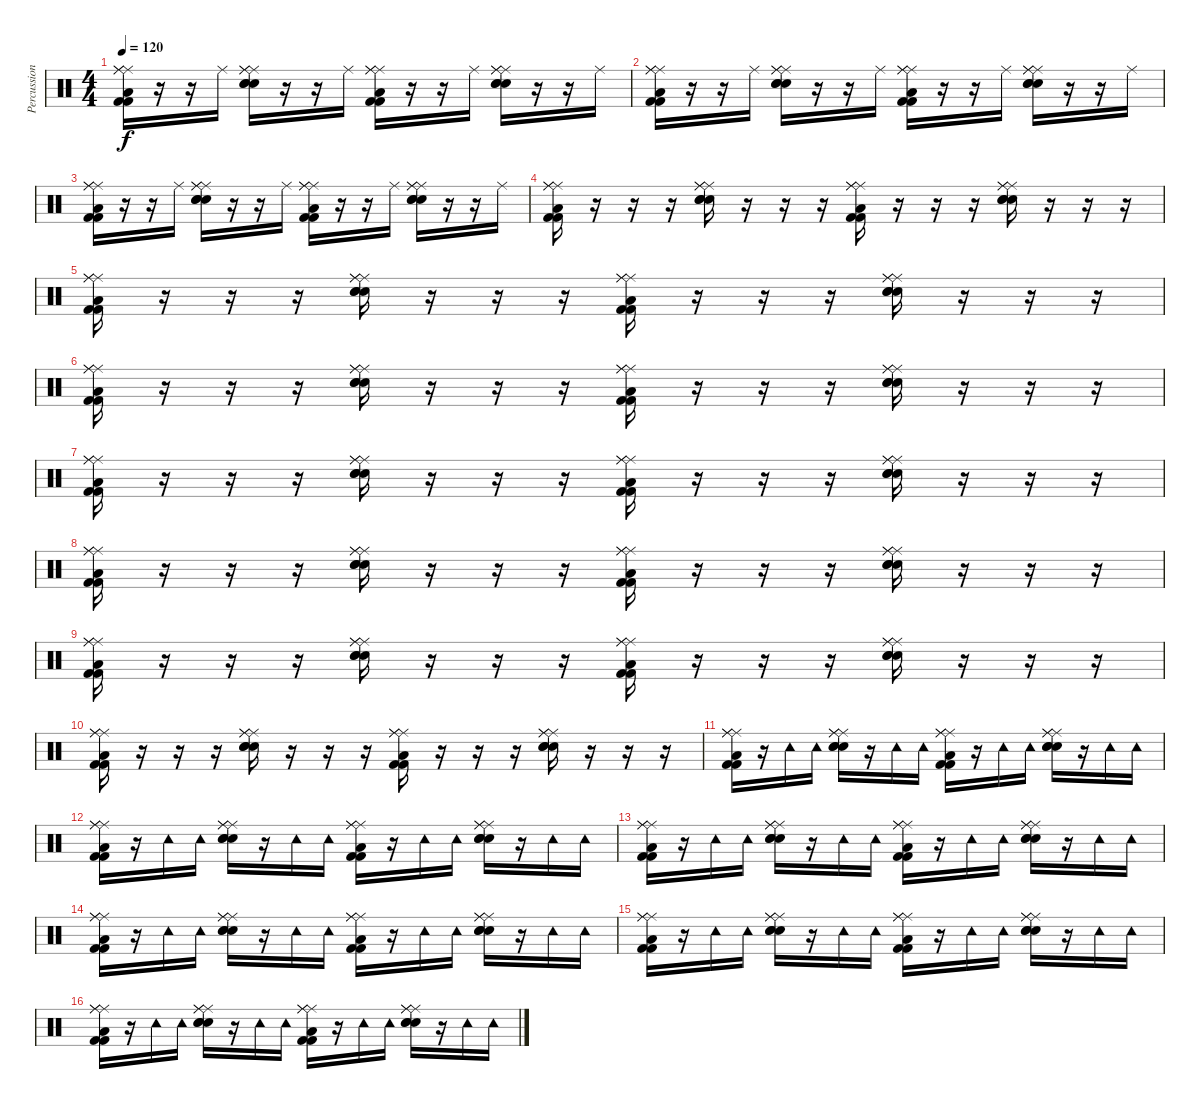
\track ("Percussion" "Percussion") {instrument percussion}
\staff {score}
\articulation defaults
\ts (4 4)
\tempo 120
\clef neutral
\ks c
("Ride (middle)" "Ride (middle)" "Ride (middle)" "Low Floor Tom (hit)" "Kick (hit) 2" "Kick (hit) 2").16{dy f} r.16 r.16 "Ride (middle)".16 ("Ride (middle)" "Ride (middle)" "Ride (middle)" "Snare (hit) 2" "Snare (hit) 2" "Snare (hit) 2").16 r.16 r.16 "Ride (middle)".16 ("Ride (middle)" "Ride (middle)" "Ride (middle)" "Low Floor Tom (hit)" "Kick (hit) 2" "Kick (hit) 2").16 r.16 r.16 "Ride (middle)".16 ("Ride (middle)" "Ride (middle)" "Ride (middle)" "Snare (hit) 2" "Snare (hit) 2" "Snare (hit) 2").16 r.16 r.16 "Ride (middle)".16 |
("Ride (middle)" "Ride (middle)" "Ride (middle)" "Low Floor Tom (hit)" "Kick (hit) 2" "Kick (hit) 2").16 r.16 r.16 "Ride (middle)".16 ("Ride (middle)" "Ride (middle)" "Ride (middle)" "Snare (hit) 2" "Snare (hit) 2" "Snare (hit) 2").16 r.16 r.16 "Ride (middle)".16 ("Ride (middle)" "Ride (middle)" "Ride (middle)" "Low Floor Tom (hit)" "Kick (hit) 2" "Kick (hit) 2").16 r.16 r.16 "Ride (middle)".16 ("Ride (middle)" "Ride (middle)" "Ride (middle)" "Snare (hit) 2" "Snare (hit) 2" "Snare (hit) 2").16 r.16 r.16 "Ride (middle)".16 |
("Ride (middle)" "Ride (middle)" "Ride (middle)" "Low Floor Tom (hit)" "Kick (hit) 2" "Kick (hit) 2").16 r.16 r.16 "Ride (middle)".16 ("Ride (middle)" "Ride (middle)" "Ride (middle)" "Snare (hit) 2" "Snare (hit) 2" "Snare (hit) 2").16 r.16 r.16 "Ride (middle)".16 ("Ride (middle)" "Ride (middle)" "Ride (middle)" "Low Floor Tom (hit)" "Kick (hit) 2" "Kick (hit) 2").16 r.16 r.16 "Ride (middle)".16 ("Ride (middle)" "Ride (middle)" "Ride (middle)" "Snare (hit) 2" "Snare (hit) 2" "Snare (hit) 2").16 r.16 r.16 "Ride (middle)".16 |
("Ride (middle)" "Ride (middle)" "Ride (middle)" "Low Floor Tom (hit)" "Kick (hit) 2" "Kick (hit) 2").16 r.16 r.16 r.16 ("Ride (middle)" "Ride (middle)" "Ride (middle)" "Snare (hit) 2" "Snare (hit) 2" "Snare (hit) 2").16 r.16 r.16 r.16 ("Ride (middle)" "Ride (middle)" "Ride (middle)" "Low Floor Tom (hit)" "Kick (hit) 2" "Kick (hit) 2").16 r.16 r.16 r.16 ("Ride (middle)" "Ride (middle)" "Ride (middle)" "Snare (hit) 2" "Snare (hit) 2" "Snare (hit) 2").16 r.16 r.16 r.16 |
("Ride (middle)" "Ride (middle)" "Ride (middle)" "Low Floor Tom (hit)" "Kick (hit) 2" "Kick (hit) 2").16 r.16 r.16 r.16 ("Ride (middle)" "Ride (middle)" "Ride (middle)" "Snare (hit) 2" "Snare (hit) 2" "Snare (hit) 2").16 r.16 r.16 r.16 ("Ride (middle)" "Ride (middle)" "Ride (middle)" "Low Floor Tom (hit)" "Kick (hit) 2" "Kick (hit) 2").16 r.16 r.16 r.16 ("Ride (middle)" "Ride (middle)" "Ride (middle)" "Snare (hit) 2" "Snare (hit) 2" "Snare (hit) 2").16 r.16 r.16 r.16 |
("Ride (middle)" "Ride (middle)" "Ride (middle)" "Low Floor Tom (hit)" "Kick (hit) 2" "Kick (hit) 2").16 r.16 r.16 r.16 ("Ride (middle)" "Ride (middle)" "Ride (middle)" "Snare (hit) 2" "Snare (hit) 2" "Snare (hit) 2").16 r.16 r.16 r.16 ("Ride (middle)" "Ride (middle)" "Ride (middle)" "Low Floor Tom (hit)" "Kick (hit) 2" "Kick (hit) 2").16 r.16 r.16 r.16 ("Ride (middle)" "Ride (middle)" "Ride (middle)" "Snare (hit) 2" "Snare (hit) 2" "Snare (hit) 2").16 r.16 r.16 r.16 |
("Ride (middle)" "Ride (middle)" "Ride (middle)" "Low Floor Tom (hit)" "Kick (hit) 2" "Kick (hit) 2").16 r.16 r.16 r.16 ("Ride (middle)" "Ride (middle)" "Ride (middle)" "Snare (hit) 2" "Snare (hit) 2" "Snare (hit) 2").16 r.16 r.16 r.16 ("Ride (middle)" "Ride (middle)" "Ride (middle)" "Low Floor Tom (hit)" "Kick (hit) 2" "Kick (hit) 2").16 r.16 r.16 r.16 ("Ride (middle)" "Ride (middle)" "Ride (middle)" "Snare (hit) 2" "Snare (hit) 2" "Snare (hit) 2").16 r.16 r.16 r.16 |
("Ride (middle)" "Ride (middle)" "Ride (middle)" "Low Floor Tom (hit)" "Kick (hit) 2" "Kick (hit) 2").16 r.16 r.16 r.16 ("Ride (middle)" "Ride (middle)" "Ride (middle)" "Snare (hit) 2" "Snare (hit) 2" "Snare (hit) 2").16 r.16 r.16 r.16 ("Ride (middle)" "Ride (middle)" "Ride (middle)" "Low Floor Tom (hit)" "Kick (hit) 2" "Kick (hit) 2").16 r.16 r.16 r.16 ("Ride (middle)" "Ride (middle)" "Ride (middle)" "Snare (hit) 2" "Snare (hit) 2" "Snare (hit) 2").16 r.16 r.16 r.16 |
("Ride (middle)" "Ride (middle)" "Ride (middle)" "Low Floor Tom (hit)" "Kick (hit) 2" "Kick (hit) 2").16 r.16 r.16 r.16 ("Ride (middle)" "Ride (middle)" "Ride (middle)" "Snare (hit) 2" "Snare (hit) 2" "Snare (hit) 2").16 r.16 r.16 r.16 ("Ride (middle)" "Ride (middle)" "Ride (middle)" "Low Floor Tom (hit)" "Kick (hit) 2" "Kick (hit) 2").16 r.16 r.16 r.16 ("Ride (middle)" "Ride (middle)" "Ride (middle)" "Snare (hit) 2" "Snare (hit) 2" "Snare (hit) 2").16 r.16 r.16 r.16 |
("Ride (middle)" "Ride (middle)" "Ride (middle)" "Low Floor Tom (hit)" "Kick (hit) 2" "Kick (hit) 2").16 r.16 r.16 r.16 ("Ride (middle)" "Ride (middle)" "Ride (middle)" "Snare (hit) 2" "Snare (hit) 2" "Snare (hit) 2").16 r.16 r.16 r.16 ("Ride (middle)" "Ride (middle)" "Ride (middle)" "Low Floor Tom (hit)" "Kick (hit) 2" "Kick (hit) 2").16 r.16 r.16 r.16 ("Ride (middle)" "Ride (middle)" "Ride (middle)" "Snare (hit) 2" "Snare (hit) 2" "Snare (hit) 2").16 r.16 r.16 r.16 |
("Ride (middle)" "Ride (middle)" "Ride (middle)" "Low Floor Tom (hit)" "Kick (hit) 2" "Kick (hit) 2").16 r.16 "Tambourine (hit)".16 "Tambourine (hit)".16 ("Ride (middle)" "Ride (middle)" "Ride (middle)" "Snare (hit) 2" "Snare (hit) 2" "Snare (hit) 2").16 r.16 "Tambourine (hit)".16 "Tambourine (hit)".16 ("Ride (middle)" "Ride (middle)" "Ride (middle)" "Low Floor Tom (hit)" "Kick (hit) 2" "Kick (hit) 2").16 r.16 "Tambourine (hit)".16 "Tambourine (hit)".16 ("Ride (middle)" "Ride (middle)" "Ride (middle)" "Snare (hit) 2" "Snare (hit) 2" "Snare (hit) 2").16 r.16 "Tambourine (hit)".16 "Tambourine (hit)".16 |
("Ride (middle)" "Ride (middle)" "Ride (middle)" "Low Floor Tom (hit)" "Kick (hit) 2" "Kick (hit) 2").16 r.16 "Tambourine (hit)".16 "Tambourine (hit)".16 ("Ride (middle)" "Ride (middle)" "Ride (middle)" "Snare (hit) 2" "Snare (hit) 2" "Snare (hit) 2").16 r.16 "Tambourine (hit)".16 "Tambourine (hit)".16 ("Ride (middle)" "Ride (middle)" "Ride (middle)" "Low Floor Tom (hit)" "Kick (hit) 2" "Kick (hit) 2").16 r.16 "Tambourine (hit)".16 "Tambourine (hit)".16 ("Ride (middle)" "Ride (middle)" "Ride (middle)" "Snare (hit) 2" "Snare (hit) 2" "Snare (hit) 2").16 r.16 "Tambourine (hit)".16 "Tambourine (hit)".16 |
("Ride (middle)" "Ride (middle)" "Ride (middle)" "Low Floor Tom (hit)" "Kick (hit) 2" "Kick (hit) 2").16 r.16 "Tambourine (hit)".16 "Tambourine (hit)".16 ("Ride (middle)" "Ride (middle)" "Ride (middle)" "Snare (hit) 2" "Snare (hit) 2" "Snare (hit) 2").16 r.16 "Tambourine (hit)".16 "Tambourine (hit)".16 ("Ride (middle)" "Ride (middle)" "Ride (middle)" "Low Floor Tom (hit)" "Kick (hit) 2" "Kick (hit) 2").16 r.16 "Tambourine (hit)".16 "Tambourine (hit)".16 ("Ride (middle)" "Ride (middle)" "Ride (middle)" "Snare (hit) 2" "Snare (hit) 2" "Snare (hit) 2").16 r.16 "Tambourine (hit)".16 "Tambourine (hit)".16 |
("Ride (middle)" "Ride (middle)" "Ride (middle)" "Low Floor Tom (hit)" "Kick (hit) 2" "Kick (hit) 2").16 r.16 "Tambourine (hit)".16 "Tambourine (hit)".16 ("Ride (middle)" "Ride (middle)" "Ride (middle)" "Snare (hit) 2" "Snare (hit) 2" "Snare (hit) 2").16 r.16 "Tambourine (hit)".16 "Tambourine (hit)".16 ("Ride (middle)" "Ride (middle)" "Ride (middle)" "Low Floor Tom (hit)" "Kick (hit) 2" "Kick (hit) 2").16 r.16 "Tambourine (hit)".16 "Tambourine (hit)".16 ("Ride (middle)" "Ride (middle)" "Ride (middle)" "Snare (hit) 2" "Snare (hit) 2" "Snare (hit) 2").16 r.16 "Tambourine (hit)".16 "Tambourine (hit)".16 |
("Ride (middle)" "Ride (middle)" "Ride (middle)" "Low Floor Tom (hit)" "Kick (hit) 2" "Kick (hit) 2").16 r.16 "Tambourine (hit)".16 "Tambourine (hit)".16 ("Ride (middle)" "Ride (middle)" "Ride (middle)" "Snare (hit) 2" "Snare (hit) 2" "Snare (hit) 2").16 r.16 "Tambourine (hit)".16 "Tambourine (hit)".16 ("Ride (middle)" "Ride (middle)" "Ride (middle)" "Low Floor Tom (hit)" "Kick (hit) 2" "Kick (hit) 2").16 r.16 "Tambourine (hit)".16 "Tambourine (hit)".16 ("Ride (middle)" "Ride (middle)" "Ride (middle)" "Snare (hit) 2" "Snare (hit) 2" "Snare (hit) 2").16 r.16 "Tambourine (hit)".16 "Tambourine (hit)".16 |
("Ride (middle)" "Ride (middle)" "Ride (middle)" "Low Floor Tom (hit)" "Kick (hit) 2" "Kick (hit) 2").16 r.16 "Tambourine (hit)".16 "Tambourine (hit)".16 ("Ride (middle)" "Ride (middle)" "Ride (middle)" "Snare (hit) 2" "Snare (hit) 2" "Snare (hit) 2").16 r.16 "Tambourine (hit)".16 "Tambourine (hit)".16 ("Ride (middle)" "Ride (middle)" "Ride (middle)" "Low Floor Tom (hit)" "Kick (hit) 2" "Kick (hit) 2").16 r.16 "Tambourine (hit)".16 "Tambourine (hit)".16 ("Ride (middle)" "Ride (middle)" "Ride (middle)" "Snare (hit) 2" "Snare (hit) 2" "Snare (hit) 2").16 r.16 "Tambourine (hit)".16 "Tambourine (hit)".16
